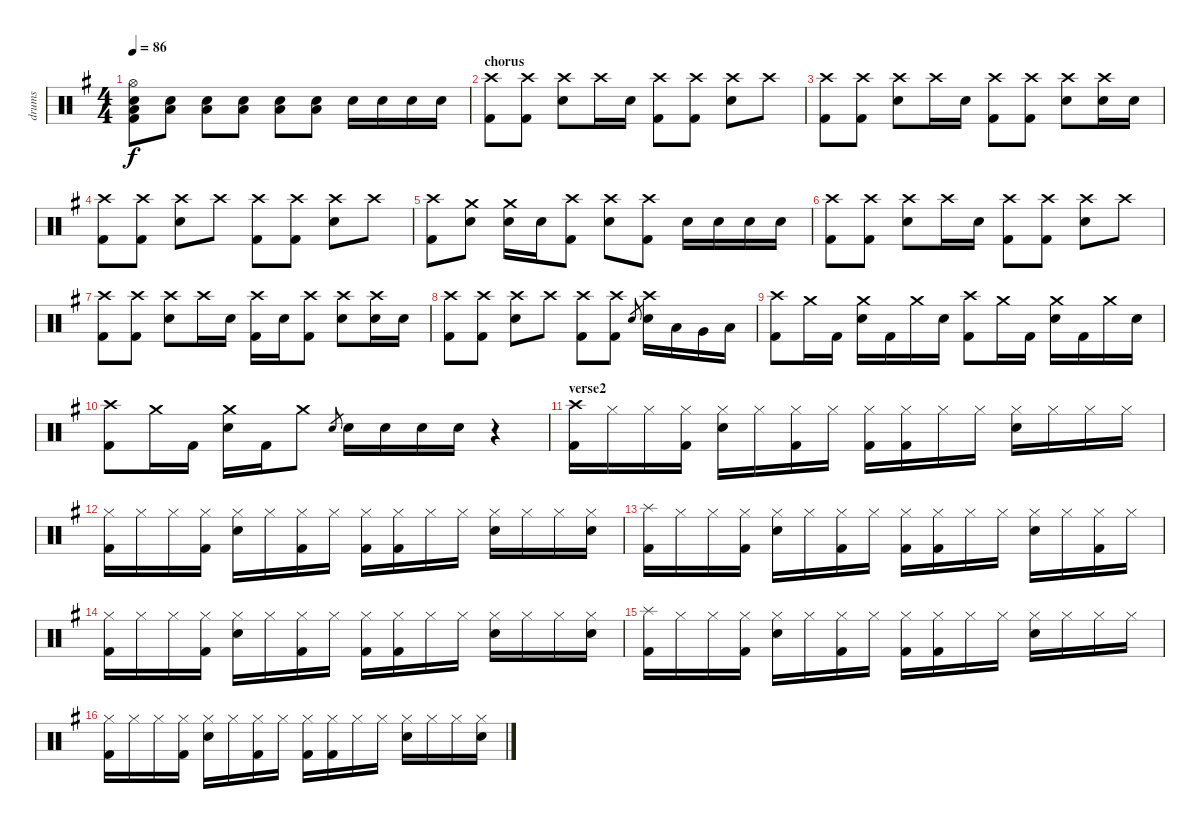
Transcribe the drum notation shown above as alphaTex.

\track ("drums" "drums") {instrument percussion}
\staff {score}
\articulation defaults
\ts (4 4)
\tempo 86
\clef neutral
\ks eminor
("Hi-Hat (open)" "Electric Snare (hit)" "Low Floor Tom (hit)" "Kick (hit) 2").8{dy f} ("Electric Snare (hit)" "Low Floor Tom (hit)").8 ("Electric Snare (hit)" "Low Floor Tom (hit)").8 ("Electric Snare (hit)" "Low Floor Tom (hit)").8 ("Electric Snare (hit)" "Low Floor Tom (hit)").8 ("Electric Snare (hit)" "Low Floor Tom (hit)").8 "Electric Snare (hit)".16 "Electric Snare (hit)".16 "Electric Snare (hit)".16 "Electric Snare (hit)".16 |
\section ("" "chorus")
("Crash high (hit)" "Kick (hit) 2").8 ("Crash high (hit)" "Kick (hit) 2").8 ("Crash high (hit)" "Electric Snare (hit)").8 "Crash high (hit)".16 "Electric Snare (hit)".16 ("Crash high (hit)" "Kick (hit) 2").8 ("Crash high (hit)" "Kick (hit) 2").8 ("Crash high (hit)" "Electric Snare (hit)").8 "Crash high (hit)".8 |
("Crash high (hit)" "Kick (hit) 2").8 ("Crash high (hit)" "Kick (hit) 2").8 ("Crash high (hit)" "Electric Snare (hit)").8 "Crash high (hit)".16 "Electric Snare (hit)".16 ("Crash high (hit)" "Kick (hit) 2").8 ("Crash high (hit)" "Kick (hit) 2").8 ("Crash high (hit)" "Electric Snare (hit)").8 ("Crash high (hit)" "Electric Snare (hit)").16 "Electric Snare (hit)".16 |
("Crash high (hit)" "Kick (hit) 2").8 ("Crash high (hit)" "Kick (hit) 2").8 ("Crash high (hit)" "Electric Snare (hit)").8 "Crash high (hit)".8 ("Crash high (hit)" "Kick (hit) 2").8 ("Crash high (hit)" "Kick (hit) 2").8 ("Crash high (hit)" "Electric Snare (hit)").8 "Crash high (hit)".8 |
("Crash high (hit)" "Kick (hit) 2").8 ("Crash medium (hit)" "Electric Snare (hit)").8 ("Crash medium (hit)" "Electric Snare (hit)").16 "Electric Snare (hit)".16 ("Crash high (hit)" "Kick (hit) 2").8 ("Crash high (hit)" "Electric Snare (hit)").8 ("Crash high (hit)" "Kick (hit) 2").8 "Electric Snare (hit)".16 "Electric Snare (hit)".16 "Electric Snare (hit)".16 "Electric Snare (hit)".16 |
("Crash high (hit)" "Kick (hit) 2").8 ("Crash high (hit)" "Kick (hit) 2").8 ("Crash high (hit)" "Electric Snare (hit)").8 "Crash high (hit)".16 "Electric Snare (hit)".16 ("Crash high (hit)" "Kick (hit) 2").8 ("Crash high (hit)" "Kick (hit) 2").8 ("Crash high (hit)" "Electric Snare (hit)").8 "Crash high (hit)".8 |
("Crash high (hit)" "Kick (hit) 2").8 ("Crash high (hit)" "Kick (hit) 2").8 ("Crash high (hit)" "Electric Snare (hit)").8 "Crash high (hit)".16 "Electric Snare (hit)".16 ("Crash high (hit)" "Kick (hit) 2").16 "Electric Snare (hit)".16 ("Crash high (hit)" "Kick (hit) 2").8 ("Crash high (hit)" "Electric Snare (hit)").8 ("Crash high (hit)" "Electric Snare (hit)").16 "Electric Snare (hit)".16 |
("Crash high (hit)" "Kick (hit) 2").8 ("Crash high (hit)" "Kick (hit) 2").8 ("Crash high (hit)" "Electric Snare (hit)").8 "Crash high (hit)".8 ("Crash high (hit)" "Kick (hit) 2").8 ("Crash high (hit)" "Kick (hit) 2").8 "Electric Snare (hit)".8{gr} ("Crash high (hit)" "Electric Snare (hit)").16 "Low Tom (hit)".16 "Very Low Tom (hit)".16 "Low Floor Tom (hit)".16 |
("Crash high (hit)" "Kick (hit) 2").8 "Crash medium (hit)".16 "Kick (hit) 2".16 ("Crash medium (hit)" "Electric Snare (hit)").16 "Kick (hit) 2".16 "Crash medium (hit)".16 "Electric Snare (hit)".16 ("Crash high (hit)" "Kick (hit) 2").8 "Crash medium (hit)".16 "Kick (hit) 2".16 ("Crash medium (hit)" "Electric Snare (hit)").16 "Kick (hit) 2".16 "Crash medium (hit)".16 "Electric Snare (hit)".16 |
("Crash high (hit)" "Kick (hit) 2").8 "Crash medium (hit)".16 "Kick (hit) 2".16 ("Crash medium (hit)" "Electric Snare (hit)").16 "Kick (hit) 2".16 "Crash medium (hit)".8 "Electric Snare (hit)".8{gr} "Electric Snare (hit)".16 "Electric Snare (hit)".16 "Electric Snare (hit)".16 "Electric Snare (hit)".16 r.4 |
\section ("" "verse2")
("Crash high (hit)" "Kick (hit) 2").16 "Hi-Hat (closed)".16 "Hi-Hat (closed)".16 ("Hi-Hat (closed)" "Kick (hit) 2").16 ("Hi-Hat (closed)" "Electric Snare (hit)").16 "Hi-Hat (closed)".16 ("Hi-Hat (closed)" "Kick (hit) 2").16 "Hi-Hat (closed)".16 ("Hi-Hat (closed)" "Kick (hit) 2").16 ("Hi-Hat (closed)" "Kick (hit) 2").16 "Hi-Hat (closed)".16 "Hi-Hat (closed)".16 ("Hi-Hat (closed)" "Electric Snare (hit)").16 "Hi-Hat (closed)".16 "Hi-Hat (closed)".16 "Hi-Hat (closed)".16 |
("Hi-Hat (closed)" "Kick (hit) 2").16 "Hi-Hat (closed)".16 "Hi-Hat (closed)".16 ("Hi-Hat (closed)" "Kick (hit) 2").16 ("Hi-Hat (closed)" "Electric Snare (hit)").16 "Hi-Hat (closed)".16 ("Hi-Hat (closed)" "Kick (hit) 2").16 "Hi-Hat (closed)".16 ("Hi-Hat (closed)" "Kick (hit) 2").16 ("Hi-Hat (closed)" "Kick (hit) 2").16 "Hi-Hat (closed)".16 "Hi-Hat (closed)".16 ("Hi-Hat (closed)" "Electric Snare (hit)").16 "Hi-Hat (closed)".16 "Hi-Hat (closed)".16 ("Hi-Hat (closed)" "Electric Snare (hit)").16 |
("Splash (hit)" "Kick (hit) 2").16 "Hi-Hat (closed)".16 "Hi-Hat (closed)".16 ("Hi-Hat (closed)" "Kick (hit) 2").16 ("Hi-Hat (closed)" "Electric Snare (hit)").16 "Hi-Hat (closed)".16 ("Hi-Hat (closed)" "Kick (hit) 2").16 "Hi-Hat (closed)".16 ("Hi-Hat (closed)" "Kick (hit) 2").16 ("Hi-Hat (closed)" "Kick (hit) 2").16 "Hi-Hat (closed)".16 "Hi-Hat (closed)".16 ("Hi-Hat (closed)" "Electric Snare (hit)").16 "Hi-Hat (closed)".16 ("Hi-Hat (closed)" "Kick (hit) 2").16 "Hi-Hat (closed)".16 |
("Hi-Hat (closed)" "Kick (hit) 2").16 "Hi-Hat (closed)".16 "Hi-Hat (closed)".16 ("Hi-Hat (closed)" "Kick (hit) 2").16 ("Hi-Hat (closed)" "Electric Snare (hit)").16 "Hi-Hat (closed)".16 ("Hi-Hat (closed)" "Kick (hit) 2").16 "Hi-Hat (closed)".16 ("Hi-Hat (closed)" "Kick (hit) 2").16 ("Hi-Hat (closed)" "Kick (hit) 2").16 "Hi-Hat (closed)".16 "Hi-Hat (closed)".16 ("Hi-Hat (closed)" "Electric Snare (hit)").16 "Hi-Hat (closed)".16 "Hi-Hat (closed)".16 ("Hi-Hat (closed)" "Electric Snare (hit)").16 |
("Splash (hit)" "Kick (hit) 2").16 "Hi-Hat (closed)".16 "Hi-Hat (closed)".16 ("Hi-Hat (closed)" "Kick (hit) 2").16 ("Hi-Hat (closed)" "Electric Snare (hit)").16 "Hi-Hat (closed)".16 ("Hi-Hat (closed)" "Kick (hit) 2").16 "Hi-Hat (closed)".16 ("Hi-Hat (closed)" "Kick (hit) 2").16 ("Hi-Hat (closed)" "Kick (hit) 2").16 "Hi-Hat (closed)".16 "Hi-Hat (closed)".16 ("Hi-Hat (closed)" "Electric Snare (hit)").16 "Hi-Hat (closed)".16 "Hi-Hat (closed)".16 "Hi-Hat (closed)".16 |
("Hi-Hat (closed)" "Kick (hit) 2").16 "Hi-Hat (closed)".16 "Hi-Hat (closed)".16 ("Hi-Hat (closed)" "Kick (hit) 2").16 ("Hi-Hat (closed)" "Electric Snare (hit)").16 "Hi-Hat (closed)".16 ("Hi-Hat (closed)" "Kick (hit) 2").16 "Hi-Hat (closed)".16 ("Hi-Hat (closed)" "Kick (hit) 2").16 ("Hi-Hat (closed)" "Kick (hit) 2").16 "Hi-Hat (closed)".16 "Hi-Hat (closed)".16 ("Hi-Hat (closed)" "Electric Snare (hit)").16 "Hi-Hat (closed)".16 "Hi-Hat (closed)".16 ("Hi-Hat (closed)" "Electric Snare (hit)").16
